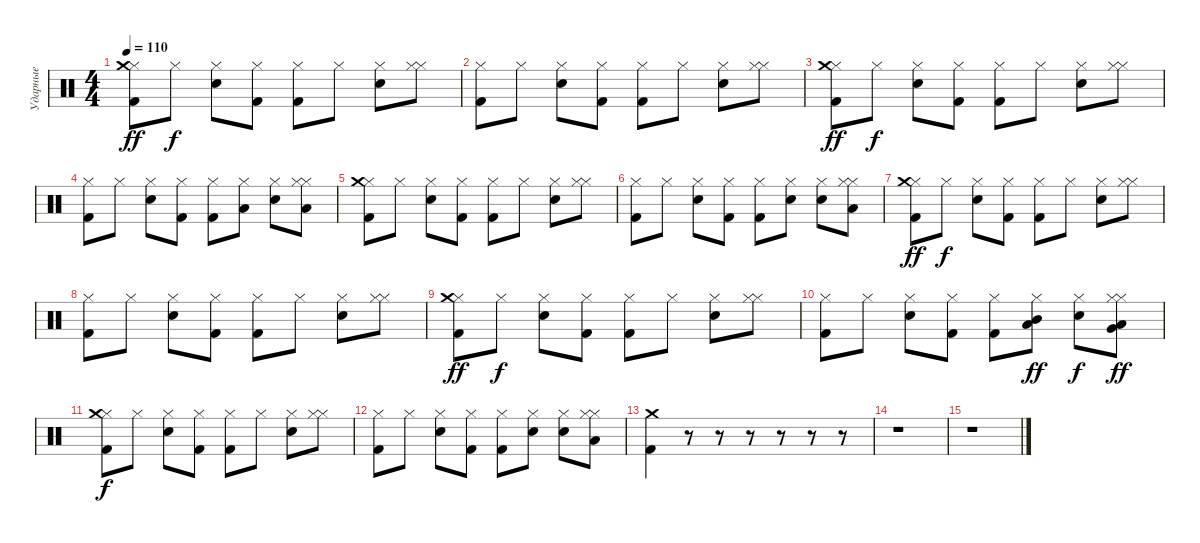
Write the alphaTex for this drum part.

\track ("Ударные" "Ударные") {instrument percussion}
\staff {score}
\articulation defaults
\ts (4 4)
\tempo 110
\clef neutral
\ks c
("Kick (hit) 2" "Hi-Hat (closed)" "Crash medium (hit)").8{dy ff} "Hi-Hat (closed)".8{dy f} ("Electric Snare (hit)" "Hi-Hat (closed)").8 ("Kick (hit) 2" "Hi-Hat (closed)").8 ("Kick (hit) 2" "Hi-Hat (closed)").8 "Hi-Hat (closed)".8 ("Electric Snare (hit)" "Hi-Hat (closed)").8 ("Hi-Hat (closed)" "Hi-Hat (closed)").8 |
("Kick (hit) 2" "Hi-Hat (closed)").8 "Hi-Hat (closed)".8 ("Electric Snare (hit)" "Hi-Hat (closed)").8 ("Kick (hit) 2" "Hi-Hat (closed)").8 ("Kick (hit) 2" "Hi-Hat (closed)").8 "Hi-Hat (closed)".8 ("Electric Snare (hit)" "Hi-Hat (closed)").8 ("Hi-Hat (closed)" "Hi-Hat (closed)").8 |
("Kick (hit) 2" "Hi-Hat (closed)" "Crash medium (hit)").8{dy ff} "Hi-Hat (closed)".8{dy f} ("Electric Snare (hit)" "Hi-Hat (closed)").8 ("Kick (hit) 2" "Hi-Hat (closed)").8 ("Kick (hit) 2" "Hi-Hat (closed)").8 "Hi-Hat (closed)".8 ("Electric Snare (hit)" "Hi-Hat (closed)").8 ("Hi-Hat (closed)" "Hi-Hat (closed)").8 |
("Kick (hit) 2" "Hi-Hat (closed)").8 "Hi-Hat (closed)".8 ("Electric Snare (hit)" "Hi-Hat (closed)").8 ("Kick (hit) 2" "Hi-Hat (closed)").8 ("Kick (hit) 2" "Hi-Hat (closed)").8 ("Hi-Hat (closed)" "Low Tom (hit)").8 ("Electric Snare (hit)" "Hi-Hat (closed)").8 ("Hi-Hat (closed)" "Hi-Hat (closed)" "Low Floor Tom (hit)").8 |
("Kick (hit) 2" "Hi-Hat (closed)" "Crash medium (hit)").8 "Hi-Hat (closed)".8 ("Electric Snare (hit)" "Hi-Hat (closed)").8 ("Kick (hit) 2" "Hi-Hat (closed)").8 ("Kick (hit) 2" "Hi-Hat (closed)").8 "Hi-Hat (closed)".8 ("Electric Snare (hit)" "Hi-Hat (closed)").8 ("Hi-Hat (closed)" "Hi-Hat (closed)").8 |
("Kick (hit) 2" "Hi-Hat (closed)").8 "Hi-Hat (closed)".8 ("Electric Snare (hit)" "Hi-Hat (closed)").8 ("Kick (hit) 2" "Hi-Hat (closed)").8 ("Kick (hit) 2" "Hi-Hat (closed)").8 ("Hi-Hat (closed)" "Electric Snare (hit)").8 ("Electric Snare (hit)" "Hi-Hat (closed)").8 ("Hi-Hat (closed)" "Hi-Hat (closed)" "Low Tom (hit)").8 |
("Kick (hit) 2" "Hi-Hat (closed)" "Crash medium (hit)").8{dy ff} "Hi-Hat (closed)".8{dy f} ("Electric Snare (hit)" "Hi-Hat (closed)").8 ("Kick (hit) 2" "Hi-Hat (closed)").8 ("Kick (hit) 2" "Hi-Hat (closed)").8 "Hi-Hat (closed)".8 ("Electric Snare (hit)" "Hi-Hat (closed)").8 ("Hi-Hat (closed)" "Hi-Hat (closed)").8 |
("Kick (hit) 2" "Hi-Hat (closed)").8 "Hi-Hat (closed)".8 ("Electric Snare (hit)" "Hi-Hat (closed)").8 ("Kick (hit) 2" "Hi-Hat (closed)").8 ("Kick (hit) 2" "Hi-Hat (closed)").8 "Hi-Hat (closed)".8 ("Electric Snare (hit)" "Hi-Hat (closed)").8 ("Hi-Hat (closed)" "Hi-Hat (closed)").8 |
("Kick (hit) 2" "Hi-Hat (closed)" "Crash medium (hit)").8{dy ff} "Hi-Hat (closed)".8{dy f} ("Electric Snare (hit)" "Hi-Hat (closed)").8 ("Kick (hit) 2" "Hi-Hat (closed)").8 ("Kick (hit) 2" "Hi-Hat (closed)").8 "Hi-Hat (closed)".8 ("Electric Snare (hit)" "Hi-Hat (closed)").8 ("Hi-Hat (closed)" "Hi-Hat (closed)").8 |
("Kick (hit) 2" "Hi-Hat (closed)").8 "Hi-Hat (closed)".8 ("Electric Snare (hit)" "Hi-Hat (closed)").8 ("Kick (hit) 2" "Hi-Hat (closed)").8 ("Kick (hit) 2" "Hi-Hat (closed)").8 ("Hi-Hat (closed)" "Low Tom (hit)" "Mid Tom (hit)").8{dy ff} ("Electric Snare (hit)" "Hi-Hat (closed)").8{dy f} ("Hi-Hat (closed)" "Hi-Hat (closed)" "Low Floor Tom (hit)" "Very Low Tom (hit)").8{dy ff} |
("Kick (hit) 2" "Hi-Hat (closed)" "Crash medium (hit)").8{dy f} "Hi-Hat (closed)".8 ("Electric Snare (hit)" "Hi-Hat (closed)").8 ("Kick (hit) 2" "Hi-Hat (closed)").8 ("Kick (hit) 2" "Hi-Hat (closed)").8 "Hi-Hat (closed)".8 ("Electric Snare (hit)" "Hi-Hat (closed)").8 ("Hi-Hat (closed)" "Hi-Hat (closed)").8 |
("Kick (hit) 2" "Hi-Hat (closed)").8 "Hi-Hat (closed)".8 ("Electric Snare (hit)" "Hi-Hat (closed)").8 ("Kick (hit) 2" "Hi-Hat (closed)").8 ("Kick (hit) 2" "Hi-Hat (closed)").8 ("Hi-Hat (closed)" "Electric Snare (hit)").8 ("Electric Snare (hit)" "Hi-Hat (closed)").8 ("Hi-Hat (closed)" "Hi-Hat (closed)" "Low Tom (hit)").8 |
("Crash medium (hit)" "Kick (hit) 2").4 r.8 r.8 r.8 r.8 r.8 r.8 |
r.1 |
r.1
